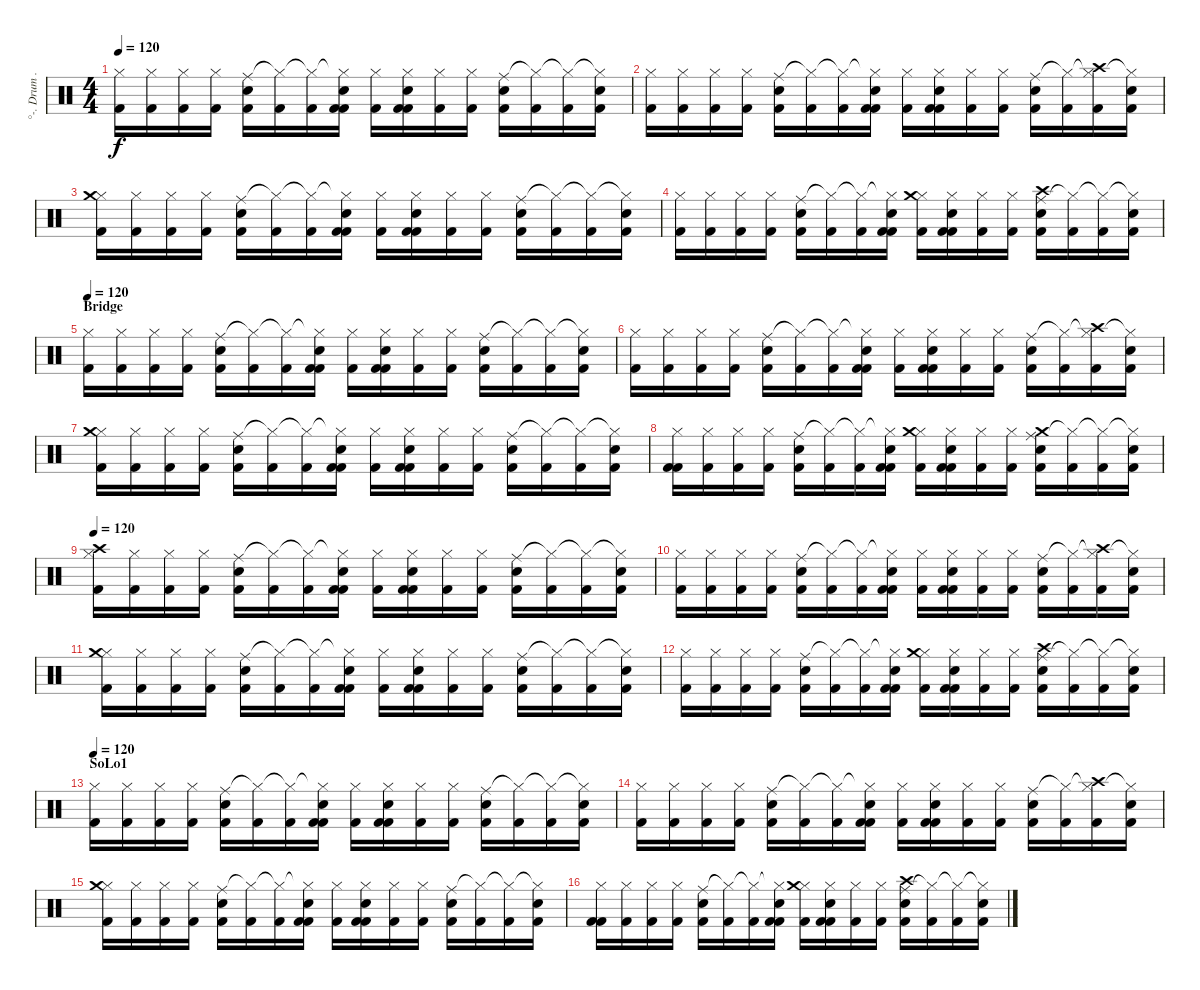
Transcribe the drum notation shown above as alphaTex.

\track ("°-. Drum .-°" "°-. Drum .") {instrument percussion}
\staff {score}
\articulation defaults
\ts (4 4)
\tempo 120
\clef neutral
\ks c
("Hi-Hat (closed)" "Kick (hit) 2").16{dy f} ("Hi-Hat (closed)" "Kick (hit) 2").16 ("Hi-Hat (closed)" "Kick (hit) 2").16 ("Hi-Hat (closed)" "Kick (hit) 2").16 ("Ride (middle)" "Kick (hit) 2" "Electric Snare (hit)").16 ("Hi-Hat (closed)"{t} "Kick (hit) 2").16 ("Hi-Hat (closed)"{t} "Kick (hit) 2").16 ("Hi-Hat (closed)"{t} "Kick (hit) 2" "Kick (hit) 2" "Electric Snare (hit)").16 ("Hi-Hat (closed)" "Kick (hit) 2").16 ("Hi-Hat (closed)" "Kick (hit) 2" "Kick (hit) 2" "Electric Snare (hit)").16 ("Hi-Hat (closed)" "Kick (hit) 2").16 ("Hi-Hat (closed)" "Kick (hit) 2").16 ("Ride (middle)" "Kick (hit) 2" "Electric Snare (hit)").16 ("Hi-Hat (closed)"{t} "Kick (hit) 2").16 ("Hi-Hat (closed)"{t} "Kick (hit) 2").16 ("Hi-Hat (closed)"{t} "Kick (hit) 2" "Electric Snare (hit)").16 |
("Hi-Hat (closed)" "Kick (hit) 2").16 ("Hi-Hat (closed)" "Kick (hit) 2").16 ("Hi-Hat (closed)" "Kick (hit) 2").16 ("Hi-Hat (closed)" "Kick (hit) 2").16 ("Ride (middle)" "Kick (hit) 2" "Electric Snare (hit)").16 ("Hi-Hat (closed)"{t} "Kick (hit) 2").16 ("Hi-Hat (closed)"{t} "Kick (hit) 2").16 ("Hi-Hat (closed)"{t} "Kick (hit) 2" "Kick (hit) 2" "Electric Snare (hit)").16 ("Hi-Hat (closed)" "Kick (hit) 2").16 ("Hi-Hat (closed)" "Kick (hit) 2" "Kick (hit) 2" "Electric Snare (hit)").16 ("Hi-Hat (closed)" "Kick (hit) 2").16 ("Hi-Hat (closed)" "Kick (hit) 2").16 ("Ride (middle)" "Kick (hit) 2" "Electric Snare (hit)").16 ("Hi-Hat (closed)"{t} "Kick (hit) 2").16 ("Hi-Hat (closed)"{t} "Crash high (hit)" "Kick (hit) 2").16 ("Hi-Hat (closed)"{t} "Kick (hit) 2" "Electric Snare (hit)").16 |
("Hi-Hat (closed)" "Crash medium (hit)" "Kick (hit) 2").16 ("Hi-Hat (closed)" "Kick (hit) 2").16 ("Hi-Hat (closed)" "Kick (hit) 2").16 ("Hi-Hat (closed)" "Kick (hit) 2").16 ("Ride (middle)" "Kick (hit) 2" "Electric Snare (hit)").16 ("Hi-Hat (closed)"{t} "Kick (hit) 2").16 ("Hi-Hat (closed)"{t} "Kick (hit) 2").16 ("Hi-Hat (closed)"{t} "Kick (hit) 2" "Kick (hit) 2" "Electric Snare (hit)").16 ("Hi-Hat (closed)" "Kick (hit) 2").16 ("Hi-Hat (closed)" "Kick (hit) 2" "Kick (hit) 2" "Electric Snare (hit)").16 ("Hi-Hat (closed)" "Kick (hit) 2").16 ("Hi-Hat (closed)" "Kick (hit) 2").16 ("Ride (middle)" "Kick (hit) 2" "Electric Snare (hit)").16 ("Hi-Hat (closed)"{t} "Kick (hit) 2").16 ("Hi-Hat (closed)"{t} "Kick (hit) 2").16 ("Hi-Hat (closed)"{t} "Kick (hit) 2" "Electric Snare (hit)").16 |
("Hi-Hat (closed)" "Kick (hit) 2").16 ("Hi-Hat (closed)" "Kick (hit) 2").16 ("Hi-Hat (closed)" "Kick (hit) 2").16 ("Hi-Hat (closed)" "Kick (hit) 2").16 ("Ride (middle)" "Kick (hit) 2" "Electric Snare (hit)").16 ("Hi-Hat (closed)"{t} "Kick (hit) 2").16 ("Hi-Hat (closed)"{t} "Kick (hit) 2").16 ("Hi-Hat (closed)"{t} "Kick (hit) 2" "Kick (hit) 2" "Electric Snare (hit)").16 ("Hi-Hat (closed)" "Crash medium (hit)" "Kick (hit) 2").16 ("Hi-Hat (closed)" "Kick (hit) 2" "Kick (hit) 2" "Electric Snare (hit)").16 ("Hi-Hat (closed)" "Kick (hit) 2").16 ("Hi-Hat (closed)" "Kick (hit) 2").16 ("Ride (middle)" "Crash high (hit)" "Kick (hit) 2" "Electric Snare (hit)").16 ("Hi-Hat (closed)"{t} "Kick (hit) 2").16 ("Hi-Hat (closed)"{t} "Kick (hit) 2").16 ("Hi-Hat (closed)"{t} "Kick (hit) 2" "Electric Snare (hit)").16 |
\section ("" "Bridge")
\tempo 120
("Hi-Hat (closed)" "Kick (hit) 2").16 ("Hi-Hat (closed)" "Kick (hit) 2").16 ("Hi-Hat (closed)" "Kick (hit) 2").16 ("Hi-Hat (closed)" "Kick (hit) 2").16 ("Ride (middle)" "Kick (hit) 2" "Electric Snare (hit)").16 ("Hi-Hat (closed)"{t} "Kick (hit) 2").16 ("Hi-Hat (closed)"{t} "Kick (hit) 2").16 ("Hi-Hat (closed)"{t} "Kick (hit) 2" "Kick (hit) 2" "Electric Snare (hit)").16 ("Hi-Hat (closed)" "Kick (hit) 2").16 ("Hi-Hat (closed)" "Kick (hit) 2" "Kick (hit) 2" "Electric Snare (hit)").16 ("Hi-Hat (closed)" "Kick (hit) 2").16 ("Hi-Hat (closed)" "Kick (hit) 2").16 ("Ride (middle)" "Kick (hit) 2" "Electric Snare (hit)").16 ("Hi-Hat (closed)"{t} "Kick (hit) 2").16 ("Hi-Hat (closed)"{t} "Kick (hit) 2").16 ("Hi-Hat (closed)"{t} "Kick (hit) 2" "Electric Snare (hit)").16 |
("Hi-Hat (closed)" "Kick (hit) 2").16 ("Hi-Hat (closed)" "Kick (hit) 2").16 ("Hi-Hat (closed)" "Kick (hit) 2").16 ("Hi-Hat (closed)" "Kick (hit) 2").16 ("Ride (middle)" "Kick (hit) 2" "Electric Snare (hit)").16 ("Hi-Hat (closed)"{t} "Kick (hit) 2").16 ("Hi-Hat (closed)"{t} "Kick (hit) 2").16 ("Hi-Hat (closed)"{t} "Kick (hit) 2" "Kick (hit) 2" "Electric Snare (hit)").16 ("Hi-Hat (closed)" "Kick (hit) 2").16 ("Hi-Hat (closed)" "Kick (hit) 2" "Kick (hit) 2" "Electric Snare (hit)").16 ("Hi-Hat (closed)" "Kick (hit) 2").16 ("Hi-Hat (closed)" "Kick (hit) 2").16 ("Ride (middle)" "Kick (hit) 2" "Electric Snare (hit)").16 ("Hi-Hat (closed)"{t} "Kick (hit) 2").16 ("Hi-Hat (closed)"{t} "Crash high (hit)" "Kick (hit) 2").16 ("Hi-Hat (closed)"{t} "Kick (hit) 2" "Electric Snare (hit)").16 |
("Hi-Hat (closed)" "Crash medium (hit)" "Kick (hit) 2").16 ("Hi-Hat (closed)" "Kick (hit) 2").16 ("Hi-Hat (closed)" "Kick (hit) 2").16 ("Hi-Hat (closed)" "Kick (hit) 2").16 ("Ride (middle)" "Kick (hit) 2" "Electric Snare (hit)").16 ("Hi-Hat (closed)"{t} "Kick (hit) 2").16 ("Hi-Hat (closed)"{t} "Kick (hit) 2").16 ("Hi-Hat (closed)"{t} "Kick (hit) 2" "Kick (hit) 2" "Electric Snare (hit)").16 ("Hi-Hat (closed)" "Kick (hit) 2").16 ("Hi-Hat (closed)" "Kick (hit) 2" "Kick (hit) 2" "Electric Snare (hit)").16 ("Hi-Hat (closed)" "Kick (hit) 2").16 ("Hi-Hat (closed)" "Kick (hit) 2").16 ("Ride (middle)" "Kick (hit) 2" "Electric Snare (hit)").16 ("Hi-Hat (closed)"{t} "Kick (hit) 2").16 ("Hi-Hat (closed)"{t} "Kick (hit) 2").16 ("Hi-Hat (closed)"{t} "Kick (hit) 2" "Electric Snare (hit)").16 |
("Hi-Hat (closed)" "Kick (hit) 2" "Kick (hit) 2").16 ("Hi-Hat (closed)" "Kick (hit) 2").16 ("Hi-Hat (closed)" "Kick (hit) 2").16 ("Hi-Hat (closed)" "Kick (hit) 2").16 ("Ride (middle)" "Kick (hit) 2" "Electric Snare (hit)").16 ("Hi-Hat (closed)"{t} "Kick (hit) 2").16 ("Hi-Hat (closed)"{t} "Kick (hit) 2").16 ("Hi-Hat (closed)"{t} "Kick (hit) 2" "Kick (hit) 2" "Electric Snare (hit)").16 ("Hi-Hat (closed)" "Crash medium (hit)" "Kick (hit) 2").16 ("Hi-Hat (closed)" "Kick (hit) 2" "Kick (hit) 2" "Electric Snare (hit)").16 ("Hi-Hat (closed)" "Kick (hit) 2").16 ("Hi-Hat (closed)" "Kick (hit) 2").16 ("Ride (middle)" "Crash medium (hit)" "Kick (hit) 2" "Electric Snare (hit)").16 ("Hi-Hat (closed)"{t} "Kick (hit) 2").16 ("Hi-Hat (closed)"{t} "Kick (hit) 2").16 ("Hi-Hat (closed)"{t} "Kick (hit) 2" "Electric Snare (hit)").16 |
\tempo 120
("Hi-Hat (closed)" "Crash high (hit)" "Kick (hit) 2").16 ("Hi-Hat (closed)" "Kick (hit) 2").16 ("Hi-Hat (closed)" "Kick (hit) 2").16 ("Hi-Hat (closed)" "Kick (hit) 2").16 ("Ride (middle)" "Kick (hit) 2" "Electric Snare (hit)").16 ("Hi-Hat (closed)"{t} "Kick (hit) 2").16 ("Hi-Hat (closed)"{t} "Kick (hit) 2").16 ("Hi-Hat (closed)"{t} "Kick (hit) 2" "Kick (hit) 2" "Electric Snare (hit)").16 ("Hi-Hat (closed)" "Kick (hit) 2").16 ("Hi-Hat (closed)" "Kick (hit) 2" "Kick (hit) 2" "Electric Snare (hit)").16 ("Hi-Hat (closed)" "Kick (hit) 2").16 ("Hi-Hat (closed)" "Kick (hit) 2").16 ("Ride (middle)" "Kick (hit) 2" "Electric Snare (hit)").16 ("Hi-Hat (closed)"{t} "Kick (hit) 2").16 ("Hi-Hat (closed)"{t} "Kick (hit) 2").16 ("Hi-Hat (closed)"{t} "Kick (hit) 2" "Electric Snare (hit)").16 |
("Hi-Hat (closed)" "Kick (hit) 2").16 ("Hi-Hat (closed)" "Kick (hit) 2").16 ("Hi-Hat (closed)" "Kick (hit) 2").16 ("Hi-Hat (closed)" "Kick (hit) 2").16 ("Ride (middle)" "Kick (hit) 2" "Electric Snare (hit)").16 ("Hi-Hat (closed)"{t} "Kick (hit) 2").16 ("Hi-Hat (closed)"{t} "Kick (hit) 2").16 ("Hi-Hat (closed)"{t} "Kick (hit) 2" "Kick (hit) 2" "Electric Snare (hit)").16 ("Hi-Hat (closed)" "Kick (hit) 2").16 ("Hi-Hat (closed)" "Kick (hit) 2" "Kick (hit) 2" "Electric Snare (hit)").16 ("Hi-Hat (closed)" "Kick (hit) 2").16 ("Hi-Hat (closed)" "Kick (hit) 2").16 ("Ride (middle)" "Kick (hit) 2" "Electric Snare (hit)").16 ("Hi-Hat (closed)"{t} "Kick (hit) 2").16 ("Hi-Hat (closed)"{t} "Crash high (hit)" "Kick (hit) 2").16 ("Hi-Hat (closed)"{t} "Kick (hit) 2" "Electric Snare (hit)").16 |
("Hi-Hat (closed)" "Crash medium (hit)" "Kick (hit) 2").16 ("Hi-Hat (closed)" "Kick (hit) 2").16 ("Hi-Hat (closed)" "Kick (hit) 2").16 ("Hi-Hat (closed)" "Kick (hit) 2").16 ("Ride (middle)" "Kick (hit) 2" "Electric Snare (hit)").16 ("Hi-Hat (closed)"{t} "Kick (hit) 2").16 ("Hi-Hat (closed)"{t} "Kick (hit) 2").16 ("Hi-Hat (closed)"{t} "Kick (hit) 2" "Kick (hit) 2" "Electric Snare (hit)").16 ("Hi-Hat (closed)" "Kick (hit) 2").16 ("Hi-Hat (closed)" "Kick (hit) 2" "Kick (hit) 2" "Electric Snare (hit)").16 ("Hi-Hat (closed)" "Kick (hit) 2").16 ("Hi-Hat (closed)" "Kick (hit) 2").16 ("Ride (middle)" "Kick (hit) 2" "Electric Snare (hit)").16 ("Hi-Hat (closed)"{t} "Kick (hit) 2").16 ("Hi-Hat (closed)"{t} "Kick (hit) 2").16 ("Hi-Hat (closed)"{t} "Kick (hit) 2" "Electric Snare (hit)").16 |
("Hi-Hat (closed)" "Kick (hit) 2").16 ("Hi-Hat (closed)" "Kick (hit) 2").16 ("Hi-Hat (closed)" "Kick (hit) 2").16 ("Hi-Hat (closed)" "Kick (hit) 2").16 ("Ride (middle)" "Kick (hit) 2" "Electric Snare (hit)").16 ("Hi-Hat (closed)"{t} "Kick (hit) 2").16 ("Hi-Hat (closed)"{t} "Kick (hit) 2").16 ("Hi-Hat (closed)"{t} "Kick (hit) 2" "Kick (hit) 2" "Electric Snare (hit)").16 ("Hi-Hat (closed)" "Crash medium (hit)" "Kick (hit) 2").16 ("Hi-Hat (closed)" "Kick (hit) 2" "Kick (hit) 2" "Electric Snare (hit)").16 ("Hi-Hat (closed)" "Kick (hit) 2").16 ("Hi-Hat (closed)" "Kick (hit) 2").16 ("Ride (middle)" "Crash high (hit)" "Kick (hit) 2" "Electric Snare (hit)").16 ("Hi-Hat (closed)"{t} "Kick (hit) 2").16 ("Hi-Hat (closed)"{t} "Kick (hit) 2").16 ("Hi-Hat (closed)"{t} "Kick (hit) 2" "Electric Snare (hit)").16 |
\section ("" "SoLo1")
\tempo 120
("Hi-Hat (closed)" "Kick (hit) 2").16 ("Hi-Hat (closed)" "Kick (hit) 2").16 ("Hi-Hat (closed)" "Kick (hit) 2").16 ("Hi-Hat (closed)" "Kick (hit) 2").16 ("Ride (middle)" "Kick (hit) 2" "Electric Snare (hit)").16 ("Hi-Hat (closed)"{t} "Kick (hit) 2").16 ("Hi-Hat (closed)"{t} "Kick (hit) 2").16 ("Hi-Hat (closed)"{t} "Kick (hit) 2" "Kick (hit) 2" "Electric Snare (hit)").16 ("Hi-Hat (closed)" "Kick (hit) 2").16 ("Hi-Hat (closed)" "Kick (hit) 2" "Kick (hit) 2" "Electric Snare (hit)").16 ("Hi-Hat (closed)" "Kick (hit) 2").16 ("Hi-Hat (closed)" "Kick (hit) 2").16 ("Ride (middle)" "Kick (hit) 2" "Electric Snare (hit)").16 ("Hi-Hat (closed)"{t} "Kick (hit) 2").16 ("Hi-Hat (closed)"{t} "Kick (hit) 2").16 ("Hi-Hat (closed)"{t} "Kick (hit) 2" "Electric Snare (hit)").16 |
("Hi-Hat (closed)" "Kick (hit) 2").16 ("Hi-Hat (closed)" "Kick (hit) 2").16 ("Hi-Hat (closed)" "Kick (hit) 2").16 ("Hi-Hat (closed)" "Kick (hit) 2").16 ("Ride (middle)" "Kick (hit) 2" "Electric Snare (hit)").16 ("Hi-Hat (closed)"{t} "Kick (hit) 2").16 ("Hi-Hat (closed)"{t} "Kick (hit) 2").16 ("Hi-Hat (closed)"{t} "Kick (hit) 2" "Kick (hit) 2" "Electric Snare (hit)").16 ("Hi-Hat (closed)" "Kick (hit) 2").16 ("Hi-Hat (closed)" "Kick (hit) 2" "Kick (hit) 2" "Electric Snare (hit)").16 ("Hi-Hat (closed)" "Kick (hit) 2").16 ("Hi-Hat (closed)" "Kick (hit) 2").16 ("Ride (middle)" "Kick (hit) 2" "Electric Snare (hit)").16 ("Hi-Hat (closed)"{t} "Kick (hit) 2").16 ("Hi-Hat (closed)"{t} "Crash high (hit)" "Kick (hit) 2").16 ("Hi-Hat (closed)"{t} "Kick (hit) 2" "Electric Snare (hit)").16 |
("Hi-Hat (closed)" "Crash medium (hit)" "Kick (hit) 2").16 ("Hi-Hat (closed)" "Kick (hit) 2").16 ("Hi-Hat (closed)" "Kick (hit) 2").16 ("Hi-Hat (closed)" "Kick (hit) 2").16 ("Ride (middle)" "Kick (hit) 2" "Electric Snare (hit)").16 ("Hi-Hat (closed)"{t} "Kick (hit) 2").16 ("Hi-Hat (closed)"{t} "Kick (hit) 2").16 ("Hi-Hat (closed)"{t} "Kick (hit) 2" "Kick (hit) 2" "Electric Snare (hit)").16 ("Hi-Hat (closed)" "Kick (hit) 2").16 ("Hi-Hat (closed)" "Kick (hit) 2" "Kick (hit) 2" "Electric Snare (hit)").16 ("Hi-Hat (closed)" "Kick (hit) 2").16 ("Hi-Hat (closed)" "Kick (hit) 2").16 ("Ride (middle)" "Kick (hit) 2" "Electric Snare (hit)").16 ("Hi-Hat (closed)"{t} "Kick (hit) 2").16 ("Hi-Hat (closed)"{t} "Kick (hit) 2").16 ("Hi-Hat (closed)"{t} "Kick (hit) 2" "Electric Snare (hit)").16 |
("Hi-Hat (closed)" "Kick (hit) 2" "Kick (hit) 2").16 ("Hi-Hat (closed)" "Kick (hit) 2").16 ("Hi-Hat (closed)" "Kick (hit) 2").16 ("Hi-Hat (closed)" "Kick (hit) 2").16 ("Ride (middle)" "Kick (hit) 2" "Electric Snare (hit)").16 ("Hi-Hat (closed)"{t} "Kick (hit) 2").16 ("Hi-Hat (closed)"{t} "Kick (hit) 2").16 ("Hi-Hat (closed)"{t} "Kick (hit) 2" "Kick (hit) 2" "Electric Snare (hit)").16 ("Hi-Hat (closed)" "Crash medium (hit)" "Kick (hit) 2").16 ("Hi-Hat (closed)" "Kick (hit) 2" "Kick (hit) 2" "Electric Snare (hit)").16 ("Hi-Hat (closed)" "Kick (hit) 2").16 ("Hi-Hat (closed)" "Kick (hit) 2").16 ("Ride (middle)" "Crash high (hit)" "Kick (hit) 2" "Electric Snare (hit)").16 ("Hi-Hat (closed)"{t} "Kick (hit) 2").16 ("Hi-Hat (closed)"{t} "Kick (hit) 2").16 ("Hi-Hat (closed)"{t} "Kick (hit) 2" "Electric Snare (hit)").16
